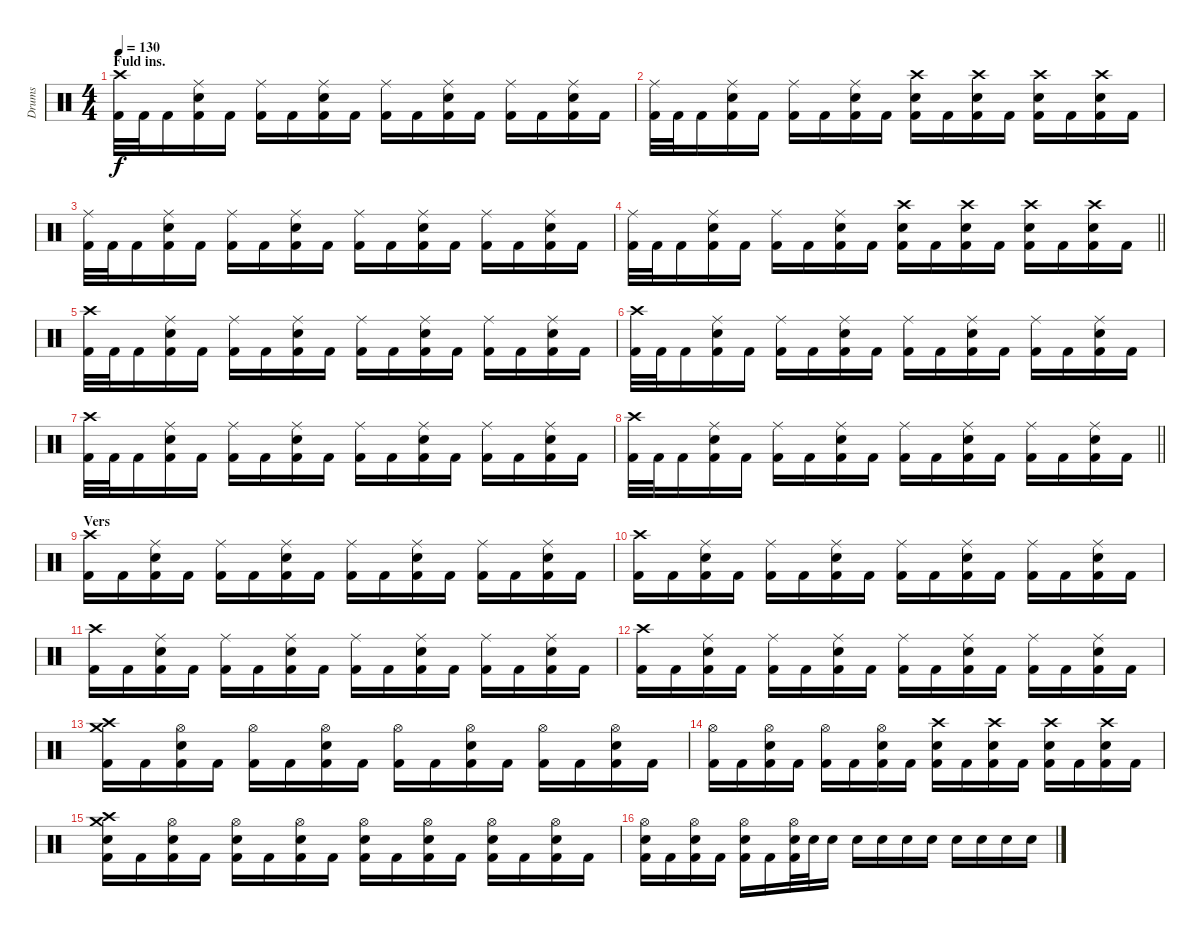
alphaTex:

\track ("Drums" "Drums") {instrument percussion}
\staff {score}
\articulation defaults
\ts (4 4)
\section ("" "Fuld ins.")
\tempo 130
\clef neutral
\ks c
("Crash high (hit)" "Kick (hit) 2").32{dy f} "Kick (hit) 2".32 "Kick (hit) 2".16 ("Ride (middle)" "Electric Snare (hit)" "Kick (hit) 2").16 "Kick (hit) 2".16 ("Ride (middle)" "Kick (hit) 2").16 "Kick (hit) 2".16 ("Ride (middle)" "Electric Snare (hit)" "Kick (hit) 2").16 "Kick (hit) 2".16 ("Ride (middle)" "Kick (hit) 2").16 "Kick (hit) 2".16 ("Ride (middle)" "Electric Snare (hit)" "Kick (hit) 2").16 "Kick (hit) 2".16 ("Ride (middle)" "Kick (hit) 2").16 "Kick (hit) 2".16 ("Ride (middle)" "Electric Snare (hit)" "Kick (hit) 2").16 "Kick (hit) 2".16 |
("Ride (middle)" "Kick (hit) 2").32 "Kick (hit) 2".32 "Kick (hit) 2".16 ("Ride (middle)" "Electric Snare (hit)" "Kick (hit) 2").16 "Kick (hit) 2".16 ("Ride (middle)" "Kick (hit) 2").16 "Kick (hit) 2".16 ("Ride (middle)" "Electric Snare (hit)" "Kick (hit) 2").16 "Kick (hit) 2".16 ("Crash high (hit)" "Electric Snare (hit)" "Kick (hit) 2").16 "Kick (hit) 2".16 ("Crash high (hit)" "Electric Snare (hit)" "Kick (hit) 2").16 "Kick (hit) 2".16 ("Crash high (hit)" "Electric Snare (hit)" "Kick (hit) 2").16 "Kick (hit) 2".16 ("Crash high (hit)" "Electric Snare (hit)" "Kick (hit) 2").16 "Kick (hit) 2".16 |
("Ride (middle)" "Kick (hit) 2").32 "Kick (hit) 2".32 "Kick (hit) 2".16 ("Ride (middle)" "Electric Snare (hit)" "Kick (hit) 2").16 "Kick (hit) 2".16 ("Ride (middle)" "Kick (hit) 2").16 "Kick (hit) 2".16 ("Ride (middle)" "Electric Snare (hit)" "Kick (hit) 2").16 "Kick (hit) 2".16 ("Ride (middle)" "Kick (hit) 2").16 "Kick (hit) 2".16 ("Ride (middle)" "Electric Snare (hit)" "Kick (hit) 2").16 "Kick (hit) 2".16 ("Ride (middle)" "Kick (hit) 2").16 "Kick (hit) 2".16 ("Ride (middle)" "Electric Snare (hit)" "Kick (hit) 2").16 "Kick (hit) 2".16 |
\barLineRight lightlight
("Ride (middle)" "Kick (hit) 2").32 "Kick (hit) 2".32 "Kick (hit) 2".16 ("Ride (middle)" "Electric Snare (hit)" "Kick (hit) 2").16 "Kick (hit) 2".16 ("Ride (middle)" "Kick (hit) 2").16 "Kick (hit) 2".16 ("Ride (middle)" "Electric Snare (hit)" "Kick (hit) 2").16 "Kick (hit) 2".16 ("Crash high (hit)" "Electric Snare (hit)" "Kick (hit) 2").16 "Kick (hit) 2".16 ("Crash high (hit)" "Electric Snare (hit)" "Kick (hit) 2").16 "Kick (hit) 2".16 ("Crash high (hit)" "Electric Snare (hit)" "Kick (hit) 2").16 "Kick (hit) 2".16 ("Crash high (hit)" "Electric Snare (hit)" "Kick (hit) 2").16 "Kick (hit) 2".16 |
("Crash high (hit)" "Kick (hit) 2").32 "Kick (hit) 2".32 "Kick (hit) 2".16 ("Ride (middle)" "Electric Snare (hit)" "Kick (hit) 2").16 "Kick (hit) 2".16 ("Ride (middle)" "Kick (hit) 2").16 "Kick (hit) 2".16 ("Ride (middle)" "Electric Snare (hit)" "Kick (hit) 2").16 "Kick (hit) 2".16 ("Ride (middle)" "Kick (hit) 2").16 "Kick (hit) 2".16 ("Ride (middle)" "Electric Snare (hit)" "Kick (hit) 2").16 "Kick (hit) 2".16 ("Ride (middle)" "Kick (hit) 2").16 "Kick (hit) 2".16 ("Ride (middle)" "Electric Snare (hit)" "Kick (hit) 2").16 "Kick (hit) 2".16 |
("Crash high (hit)" "Kick (hit) 2").32 "Kick (hit) 2".32 "Kick (hit) 2".16 ("Ride (middle)" "Electric Snare (hit)" "Kick (hit) 2").16 "Kick (hit) 2".16 ("Ride (middle)" "Kick (hit) 2").16 "Kick (hit) 2".16 ("Ride (middle)" "Electric Snare (hit)" "Kick (hit) 2").16 "Kick (hit) 2".16 ("Ride (middle)" "Kick (hit) 2").16 "Kick (hit) 2".16 ("Ride (middle)" "Electric Snare (hit)" "Kick (hit) 2").16 "Kick (hit) 2".16 ("Ride (middle)" "Kick (hit) 2").16 "Kick (hit) 2".16 ("Ride (middle)" "Electric Snare (hit)" "Kick (hit) 2").16 "Kick (hit) 2".16 |
("Crash high (hit)" "Kick (hit) 2").32 "Kick (hit) 2".32 "Kick (hit) 2".16 ("Ride (middle)" "Electric Snare (hit)" "Kick (hit) 2").16 "Kick (hit) 2".16 ("Ride (middle)" "Kick (hit) 2").16 "Kick (hit) 2".16 ("Ride (middle)" "Electric Snare (hit)" "Kick (hit) 2").16 "Kick (hit) 2".16 ("Ride (middle)" "Kick (hit) 2").16 "Kick (hit) 2".16 ("Ride (middle)" "Electric Snare (hit)" "Kick (hit) 2").16 "Kick (hit) 2".16 ("Ride (middle)" "Kick (hit) 2").16 "Kick (hit) 2".16 ("Ride (middle)" "Electric Snare (hit)" "Kick (hit) 2").16 "Kick (hit) 2".16 |
\barLineRight lightlight
("Crash high (hit)" "Kick (hit) 2").32 "Kick (hit) 2".32 "Kick (hit) 2".16 ("Ride (middle)" "Electric Snare (hit)" "Kick (hit) 2").16 "Kick (hit) 2".16 ("Ride (middle)" "Kick (hit) 2").16 "Kick (hit) 2".16 ("Ride (middle)" "Electric Snare (hit)" "Kick (hit) 2").16 "Kick (hit) 2".16 ("Ride (middle)" "Kick (hit) 2").16 "Kick (hit) 2".16 ("Ride (middle)" "Electric Snare (hit)" "Kick (hit) 2").16 "Kick (hit) 2".16 ("Ride (middle)" "Kick (hit) 2").16 "Kick (hit) 2".16 ("Ride (middle)" "Electric Snare (hit)" "Kick (hit) 2").16 "Kick (hit) 2".16 |
\section ("" "Vers")
("Crash high (hit)" "Kick (hit) 2").16 "Kick (hit) 2".16 ("Ride (middle)" "Electric Snare (hit)" "Kick (hit) 2").16 "Kick (hit) 2".16 ("Ride (middle)" "Kick (hit) 2").16 "Kick (hit) 2".16 ("Ride (middle)" "Electric Snare (hit)" "Kick (hit) 2").16 "Kick (hit) 2".16 ("Ride (middle)" "Kick (hit) 2").16 "Kick (hit) 2".16 ("Ride (middle)" "Electric Snare (hit)" "Kick (hit) 2").16 "Kick (hit) 2".16 ("Ride (middle)" "Kick (hit) 2").16 "Kick (hit) 2".16 ("Ride (middle)" "Electric Snare (hit)" "Kick (hit) 2").16 "Kick (hit) 2".16 |
("Crash high (hit)" "Kick (hit) 2").16 "Kick (hit) 2".16 ("Ride (middle)" "Electric Snare (hit)" "Kick (hit) 2").16 "Kick (hit) 2".16 ("Ride (middle)" "Kick (hit) 2").16 "Kick (hit) 2".16 ("Ride (middle)" "Electric Snare (hit)" "Kick (hit) 2").16 "Kick (hit) 2".16 ("Ride (middle)" "Kick (hit) 2").16 "Kick (hit) 2".16 ("Ride (middle)" "Electric Snare (hit)" "Kick (hit) 2").16 "Kick (hit) 2".16 ("Ride (middle)" "Kick (hit) 2").16 "Kick (hit) 2".16 ("Ride (middle)" "Electric Snare (hit)" "Kick (hit) 2").16 "Kick (hit) 2".16 |
("Crash high (hit)" "Kick (hit) 2").16 "Kick (hit) 2".16 ("Ride (middle)" "Electric Snare (hit)" "Kick (hit) 2").16 "Kick (hit) 2".16 ("Ride (middle)" "Kick (hit) 2").16 "Kick (hit) 2".16 ("Ride (middle)" "Electric Snare (hit)" "Kick (hit) 2").16 "Kick (hit) 2".16 ("Ride (middle)" "Kick (hit) 2").16 "Kick (hit) 2".16 ("Ride (middle)" "Electric Snare (hit)" "Kick (hit) 2").16 "Kick (hit) 2".16 ("Ride (middle)" "Kick (hit) 2").16 "Kick (hit) 2".16 ("Ride (middle)" "Electric Snare (hit)" "Kick (hit) 2").16 "Kick (hit) 2".16 |
("Crash high (hit)" "Kick (hit) 2").16 "Kick (hit) 2".16 ("Ride (middle)" "Electric Snare (hit)" "Kick (hit) 2").16 "Kick (hit) 2".16 ("Ride (middle)" "Kick (hit) 2").16 "Kick (hit) 2".16 ("Ride (middle)" "Electric Snare (hit)" "Kick (hit) 2").16 "Kick (hit) 2".16 ("Ride (middle)" "Kick (hit) 2").16 "Kick (hit) 2".16 ("Ride (middle)" "Electric Snare (hit)" "Kick (hit) 2").16 "Kick (hit) 2".16 ("Ride (middle)" "Kick (hit) 2").16 "Kick (hit) 2".16 ("Ride (middle)" "Electric Snare (hit)" "Kick (hit) 2").16 "Kick (hit) 2".16 |
("Crash medium (hit)" "Crash high (hit)" "Kick (hit) 2").16 "Kick (hit) 2".16 ("Hi-Hat (open)" "Electric Snare (hit)" "Kick (hit) 2").16 "Kick (hit) 2".16 ("Hi-Hat (open)" "Kick (hit) 2").16 "Kick (hit) 2".16 ("Hi-Hat (open)" "Electric Snare (hit)" "Kick (hit) 2").16 "Kick (hit) 2".16 ("Hi-Hat (open)" "Kick (hit) 2").16 "Kick (hit) 2".16 ("Hi-Hat (open)" "Electric Snare (hit)" "Kick (hit) 2").16 "Kick (hit) 2".16 ("Hi-Hat (open)" "Kick (hit) 2").16 "Kick (hit) 2".16 ("Hi-Hat (open)" "Electric Snare (hit)" "Kick (hit) 2").16 "Kick (hit) 2".16 |
("Hi-Hat (open)" "Kick (hit) 2").16 "Kick (hit) 2".16 ("Hi-Hat (open)" "Electric Snare (hit)" "Kick (hit) 2").16 "Kick (hit) 2".16 ("Hi-Hat (open)" "Kick (hit) 2").16 "Kick (hit) 2".16 ("Hi-Hat (open)" "Electric Snare (hit)" "Kick (hit) 2").16 "Kick (hit) 2".16 ("Crash high (hit)" "Electric Snare (hit)" "Kick (hit) 2").16 "Kick (hit) 2".16 ("Crash high (hit)" "Electric Snare (hit)" "Kick (hit) 2").16 "Kick (hit) 2".16 ("Crash high (hit)" "Electric Snare (hit)" "Kick (hit) 2").16 "Kick (hit) 2".16 ("Crash high (hit)" "Electric Snare (hit)" "Kick (hit) 2").16 "Kick (hit) 2".16 |
("Crash medium (hit)" "Crash high (hit)" "Electric Snare (hit)" "Kick (hit) 2").16 "Kick (hit) 2".16 ("Hi-Hat (open)" "Electric Snare (hit)" "Kick (hit) 2").16 "Kick (hit) 2".16 ("Hi-Hat (open)" "Electric Snare (hit)" "Kick (hit) 2").16 "Kick (hit) 2".16 ("Hi-Hat (open)" "Electric Snare (hit)" "Kick (hit) 2").16 "Kick (hit) 2".16 ("Hi-Hat (open)" "Electric Snare (hit)" "Kick (hit) 2").16 "Kick (hit) 2".16 ("Hi-Hat (open)" "Electric Snare (hit)" "Kick (hit) 2").16 "Kick (hit) 2".16 ("Hi-Hat (open)" "Electric Snare (hit)" "Kick (hit) 2").16 "Kick (hit) 2".16 ("Hi-Hat (open)" "Electric Snare (hit)" "Kick (hit) 2").16 "Kick (hit) 2".16 |
("Hi-Hat (open)" "Electric Snare (hit)" "Kick (hit) 2").16 "Kick (hit) 2".16 ("Hi-Hat (open)" "Electric Snare (hit)" "Kick (hit) 2").16 "Kick (hit) 2".16 ("Hi-Hat (open)" "Electric Snare (hit)" "Kick (hit) 2").16 "Kick (hit) 2".16 ("Hi-Hat (open)" "Electric Snare (hit)" "Kick (hit) 2").32 "Electric Snare (hit)".32 "Electric Snare (hit)".16 "Electric Snare (hit)".16 "Electric Snare (hit)".16 "Electric Snare (hit)".16 "Electric Snare (hit)".16 "Electric Snare (hit)".16 "Electric Snare (hit)".16 "Electric Snare (hit)".16 "Electric Snare (hit)".16
